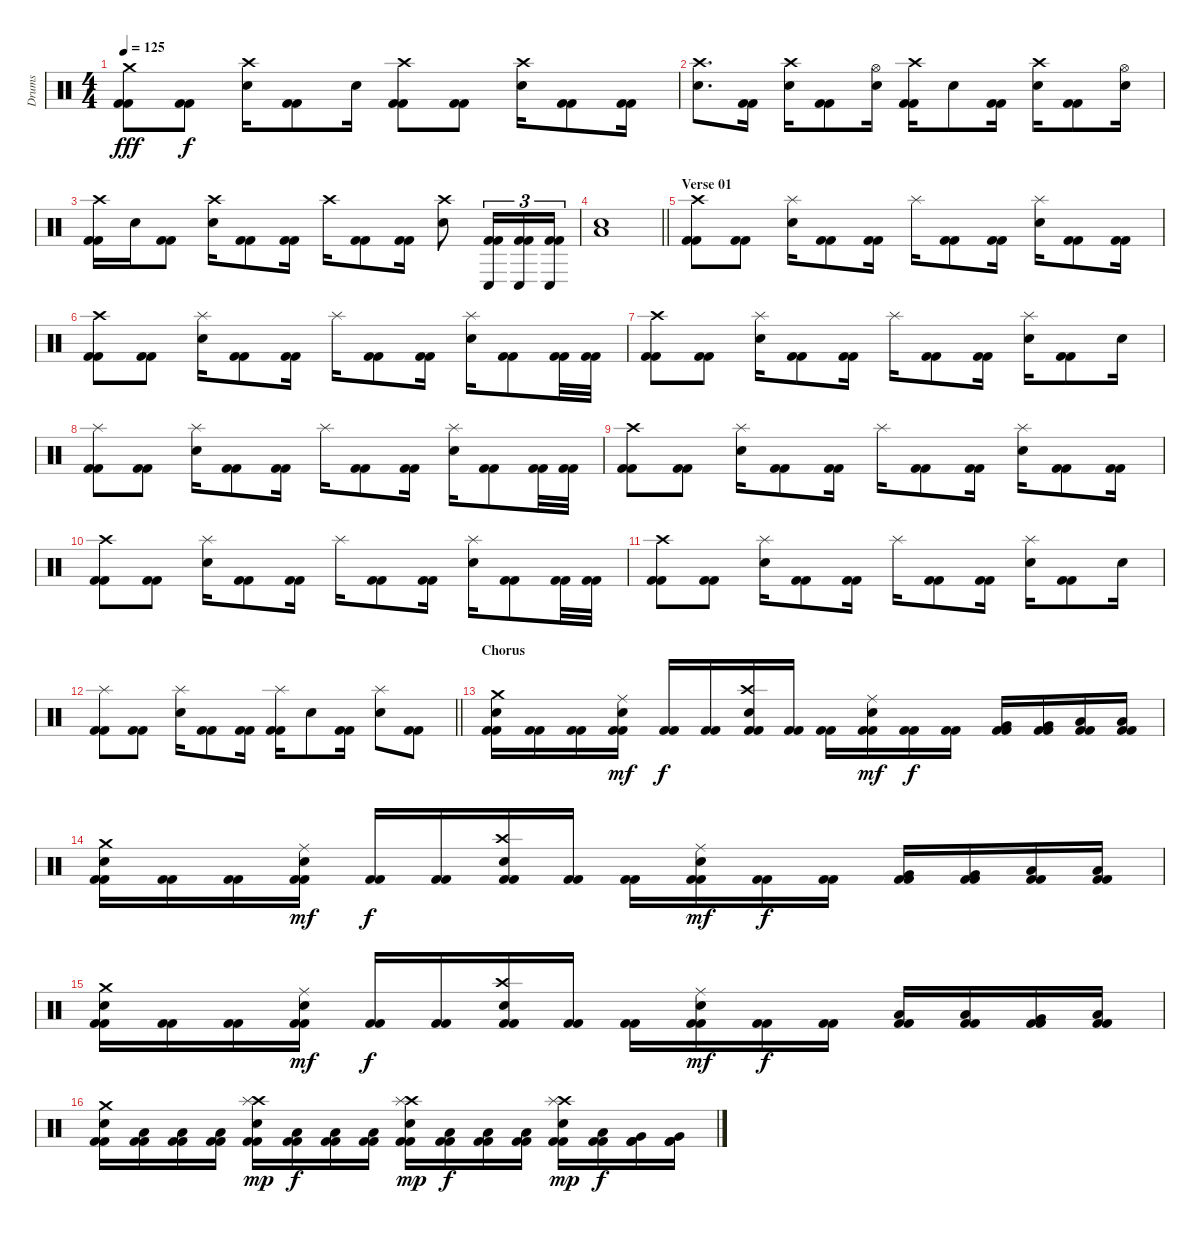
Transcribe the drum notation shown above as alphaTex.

\track ("Drums" "Drums") {instrument percussion}
\staff {score}
\articulation defaults
\ts (4 4)
\tempo 125
\clef neutral
\ks c
("Crash medium (hit)" "Kick (hit) 2" "Kick (hit) 2").8{dy fff} ("Kick (hit) 2" "Kick (hit) 2").8{dy f} ("Crash high (hit)" "Electric Snare (hit)").16 ("Kick (hit) 2" "Kick (hit) 2").8 "Electric Snare (hit)".16 ("Crash high (hit)" "Kick (hit) 2" "Kick (hit) 2").8 ("Kick (hit) 2" "Kick (hit) 2").8 ("Crash high (hit)" "Electric Snare (hit)").16 ("Kick (hit) 2" "Kick (hit) 2").8 ("Kick (hit) 2" "Kick (hit) 2").16 |
("Crash high (hit)" "Electric Snare (hit)").8{d} ("Kick (hit) 2" "Kick (hit) 2").16 ("Crash high (hit)" "Electric Snare (hit)").16 ("Kick (hit) 2" "Kick (hit) 2").8 ("Hi-Hat (open)" "Electric Snare (hit)").16 ("Crash high (hit)" "Kick (hit) 2" "Kick (hit) 2").16 "Electric Snare (hit)".8 ("Kick (hit) 2" "Kick (hit) 2").16 ("Crash high (hit)" "Electric Snare (hit)").16 ("Kick (hit) 2" "Kick (hit) 2").8 ("Hi-Hat (open)" "Electric Snare (hit)").16 |
("Crash high (hit)" "Kick (hit) 2" "Kick (hit) 2").16 "Electric Snare (hit)".16 ("Kick (hit) 2" "Kick (hit) 2").8 ("Crash high (hit)" "Electric Snare (hit)").16 ("Kick (hit) 2" "Kick (hit) 2").8 ("Kick (hit) 2" "Kick (hit) 2").16 "Crash high (hit)".16 ("Kick (hit) 2" "Kick (hit) 2").8 ("Kick (hit) 2" "Kick (hit) 2").16 ("Crash high (hit)" "Electric Snare (hit)").8 ("Conga low (hit)" "Kick (hit) 2" "Kick (hit) 2").16{tu (3 2)} ("Conga low (hit)" "Kick (hit) 2" "Kick (hit) 2").16{tu (3 2)} ("Conga low (hit)" "Kick (hit) 2" "Kick (hit) 2").16{tu (3 2)} |
\barLineRight lightlight
("Low Tom (hit)" "Electric Snare (hit)").1 |
\section ("" "Verse 01")
("Crash high (hit)" "Kick (hit) 2" "Kick (hit) 2").8 ("Kick (hit) 2" "Kick (hit) 2").8 ("Splash (hit)" "Electric Snare (hit)").16 ("Kick (hit) 2" "Kick (hit) 2").8 ("Kick (hit) 2" "Kick (hit) 2").16 "Splash (hit)".16 ("Kick (hit) 2" "Kick (hit) 2").8 ("Kick (hit) 2" "Kick (hit) 2").16 ("Splash (hit)" "Electric Snare (hit)").16 ("Kick (hit) 2" "Kick (hit) 2").8 ("Kick (hit) 2" "Kick (hit) 2").16 |
("Crash high (hit)" "Kick (hit) 2" "Kick (hit) 2").8 ("Kick (hit) 2" "Kick (hit) 2").8 ("Splash (hit)" "Electric Snare (hit)").16 ("Kick (hit) 2" "Kick (hit) 2").8 ("Kick (hit) 2" "Kick (hit) 2").16 "Splash (hit)".16 ("Kick (hit) 2" "Kick (hit) 2").8 ("Kick (hit) 2" "Kick (hit) 2").16 ("Splash (hit)" "Electric Snare (hit)").16 ("Kick (hit) 2" "Kick (hit) 2").8 ("Kick (hit) 2" "Kick (hit) 2").32 ("Kick (hit) 2" "Kick (hit) 2").32 |
("Crash high (hit)" "Kick (hit) 2" "Kick (hit) 2").8 ("Kick (hit) 2" "Kick (hit) 2").8 ("Splash (hit)" "Electric Snare (hit)").16 ("Kick (hit) 2" "Kick (hit) 2").8 ("Kick (hit) 2" "Kick (hit) 2").16 "Splash (hit)".16 ("Kick (hit) 2" "Kick (hit) 2").8 ("Kick (hit) 2" "Kick (hit) 2").16 ("Splash (hit)" "Electric Snare (hit)").16 ("Kick (hit) 2" "Kick (hit) 2").8 "Electric Snare (hit)".16 |
("Splash (hit)" "Kick (hit) 2" "Kick (hit) 2").8 ("Kick (hit) 2" "Kick (hit) 2").8 ("Splash (hit)" "Electric Snare (hit)").16 ("Kick (hit) 2" "Kick (hit) 2").8 ("Kick (hit) 2" "Kick (hit) 2").16 "Splash (hit)".16 ("Kick (hit) 2" "Kick (hit) 2").8 ("Kick (hit) 2" "Kick (hit) 2").16 ("Splash (hit)" "Electric Snare (hit)").16 ("Kick (hit) 2" "Kick (hit) 2").8 ("Kick (hit) 2" "Kick (hit) 2").32 ("Kick (hit) 2" "Kick (hit) 2").32 |
("Crash high (hit)" "Kick (hit) 2" "Kick (hit) 2").8 ("Kick (hit) 2" "Kick (hit) 2").8 ("Splash (hit)" "Electric Snare (hit)").16 ("Kick (hit) 2" "Kick (hit) 2").8 ("Kick (hit) 2" "Kick (hit) 2").16 "Splash (hit)".16 ("Kick (hit) 2" "Kick (hit) 2").8 ("Kick (hit) 2" "Kick (hit) 2").16 ("Splash (hit)" "Electric Snare (hit)").16 ("Kick (hit) 2" "Kick (hit) 2").8 ("Kick (hit) 2" "Kick (hit) 2").16 |
("Crash high (hit)" "Kick (hit) 2" "Kick (hit) 2").8 ("Kick (hit) 2" "Kick (hit) 2").8 ("Splash (hit)" "Electric Snare (hit)").16 ("Kick (hit) 2" "Kick (hit) 2").8 ("Kick (hit) 2" "Kick (hit) 2").16 "Splash (hit)".16 ("Kick (hit) 2" "Kick (hit) 2").8 ("Kick (hit) 2" "Kick (hit) 2").16 ("Splash (hit)" "Electric Snare (hit)").16 ("Kick (hit) 2" "Kick (hit) 2").8 ("Kick (hit) 2" "Kick (hit) 2").32 ("Kick (hit) 2" "Kick (hit) 2").32 |
("Crash high (hit)" "Kick (hit) 2" "Kick (hit) 2").8 ("Kick (hit) 2" "Kick (hit) 2").8 ("Splash (hit)" "Electric Snare (hit)").16 ("Kick (hit) 2" "Kick (hit) 2").8 ("Kick (hit) 2" "Kick (hit) 2").16 "Splash (hit)".16 ("Kick (hit) 2" "Kick (hit) 2").8 ("Kick (hit) 2" "Kick (hit) 2").16 ("Splash (hit)" "Electric Snare (hit)").16 ("Kick (hit) 2" "Kick (hit) 2").8 "Electric Snare (hit)".16 |
\barLineRight lightlight
("Splash (hit)" "Kick (hit) 2" "Kick (hit) 2").8 ("Kick (hit) 2" "Kick (hit) 2").8 ("Splash (hit)" "Electric Snare (hit)").16 ("Kick (hit) 2" "Kick (hit) 2").8 ("Kick (hit) 2" "Kick (hit) 2").16 ("Splash (hit)" "Kick (hit) 2" "Kick (hit) 2").16 "Electric Snare (hit)".8 ("Kick (hit) 2" "Kick (hit) 2").16 ("Splash (hit)" "Electric Snare (hit)").8 ("Kick (hit) 2" "Kick (hit) 2").8 |
\section ("" "Chorus")
("Crash medium (hit)" "Electric Snare (hit)" "Kick (hit) 2" "Kick (hit) 2").16 ("Kick (hit) 2" "Kick (hit) 2").16 ("Kick (hit) 2" "Kick (hit) 2").16 ("Ride (middle)" "Electric Snare (hit)" "Kick (hit) 2" "Kick (hit) 2").16{dy mf} ("Kick (hit) 2" "Kick (hit) 2").16{dy f} ("Kick (hit) 2" "Kick (hit) 2").16 ("Crash high (hit)" "Electric Snare (hit)" "Kick (hit) 2" "Kick (hit) 2").16 ("Kick (hit) 2" "Kick (hit) 2").16 ("Kick (hit) 2" "Kick (hit) 2").16 ("Ride (middle)" "Electric Snare (hit)" "Kick (hit) 2" "Kick (hit) 2").16{dy mf} ("Kick (hit) 2" "Kick (hit) 2").16{dy f} ("Kick (hit) 2" "Kick (hit) 2").16 ("Very Low Tom (hit)" "Kick (hit) 2" "Kick (hit) 2").16 ("Very Low Tom (hit)" "Kick (hit) 2" "Kick (hit) 2").16 ("Low Floor Tom (hit)" "Kick (hit) 2" "Kick (hit) 2").16 ("Low Floor Tom (hit)" "Kick (hit) 2" "Kick (hit) 2").16 |
("Crash medium (hit)" "Electric Snare (hit)" "Kick (hit) 2" "Kick (hit) 2").16 ("Kick (hit) 2" "Kick (hit) 2").16 ("Kick (hit) 2" "Kick (hit) 2").16 ("Ride (middle)" "Electric Snare (hit)" "Kick (hit) 2" "Kick (hit) 2").16{dy mf} ("Kick (hit) 2" "Kick (hit) 2").16{dy f} ("Kick (hit) 2" "Kick (hit) 2").16 ("Crash high (hit)" "Electric Snare (hit)" "Kick (hit) 2" "Kick (hit) 2").16 ("Kick (hit) 2" "Kick (hit) 2").16 ("Kick (hit) 2" "Kick (hit) 2").16 ("Ride (middle)" "Electric Snare (hit)" "Kick (hit) 2" "Kick (hit) 2").16{dy mf} ("Kick (hit) 2" "Kick (hit) 2").16{dy f} ("Kick (hit) 2" "Kick (hit) 2").16 ("Very Low Tom (hit)" "Kick (hit) 2" "Kick (hit) 2").16 ("Very Low Tom (hit)" "Kick (hit) 2" "Kick (hit) 2").16 ("Low Floor Tom (hit)" "Kick (hit) 2" "Kick (hit) 2").16 ("Low Floor Tom (hit)" "Kick (hit) 2" "Kick (hit) 2").16 |
("Crash medium (hit)" "Electric Snare (hit)" "Kick (hit) 2" "Kick (hit) 2").16 ("Kick (hit) 2" "Kick (hit) 2").16 ("Kick (hit) 2" "Kick (hit) 2").16 ("Ride (middle)" "Electric Snare (hit)" "Kick (hit) 2" "Kick (hit) 2").16{dy mf} ("Kick (hit) 2" "Kick (hit) 2").16{dy f} ("Kick (hit) 2" "Kick (hit) 2").16 ("Crash high (hit)" "Electric Snare (hit)" "Kick (hit) 2" "Kick (hit) 2").16 ("Kick (hit) 2" "Kick (hit) 2").16 ("Kick (hit) 2" "Kick (hit) 2").16 ("Ride (middle)" "Electric Snare (hit)" "Kick (hit) 2" "Kick (hit) 2").16{dy mf} ("Kick (hit) 2" "Kick (hit) 2").16{dy f} ("Kick (hit) 2" "Kick (hit) 2").16 ("Low Tom (hit)" "Kick (hit) 2" "Kick (hit) 2").16 ("Low Tom (hit)" "Kick (hit) 2" "Kick (hit) 2").16 ("Very Low Tom (hit)" "Kick (hit) 2" "Kick (hit) 2").16 ("Low Floor Tom (hit)" "Kick (hit) 2" "Kick (hit) 2").16 |
("Crash medium (hit)" "Electric Snare (hit)" "Kick (hit) 2" "Kick (hit) 2").16 ("Low Floor Tom (hit)" "Kick (hit) 2" "Kick (hit) 2").16 ("Low Floor Tom (hit)" "Kick (hit) 2" "Kick (hit) 2").16 ("Low Floor Tom (hit)" "Kick (hit) 2" "Kick (hit) 2").16 ("Crash high (hit)" "Splash (hit)" "Electric Snare (hit)" "Kick (hit) 2" "Kick (hit) 2").16{dy mp} ("Low Floor Tom (hit)" "Kick (hit) 2" "Kick (hit) 2").16{dy f} ("Low Floor Tom (hit)" "Kick (hit) 2" "Kick (hit) 2").16 ("Low Floor Tom (hit)" "Kick (hit) 2" "Kick (hit) 2").16 ("Crash high (hit)" "Splash (hit)" "Electric Snare (hit)" "Kick (hit) 2" "Kick (hit) 2").16{dy mp} ("Low Floor Tom (hit)" "Kick (hit) 2" "Kick (hit) 2").16{dy f} ("Low Tom (hit)" "Kick (hit) 2" "Kick (hit) 2").16 ("Low Tom (hit)" "Kick (hit) 2" "Kick (hit) 2").16 ("Crash high (hit)" "Splash (hit)" "Electric Snare (hit)" "Kick (hit) 2" "Kick (hit) 2").16{dy mp} ("Low Floor Tom (hit)" "Kick (hit) 2" "Kick (hit) 2").16{dy f} ("Very Low Tom (hit)" "Kick (hit) 2" "Kick (hit) 2").16 ("Very Low Tom (hit)" "Kick (hit) 2" "Kick (hit) 2").16
